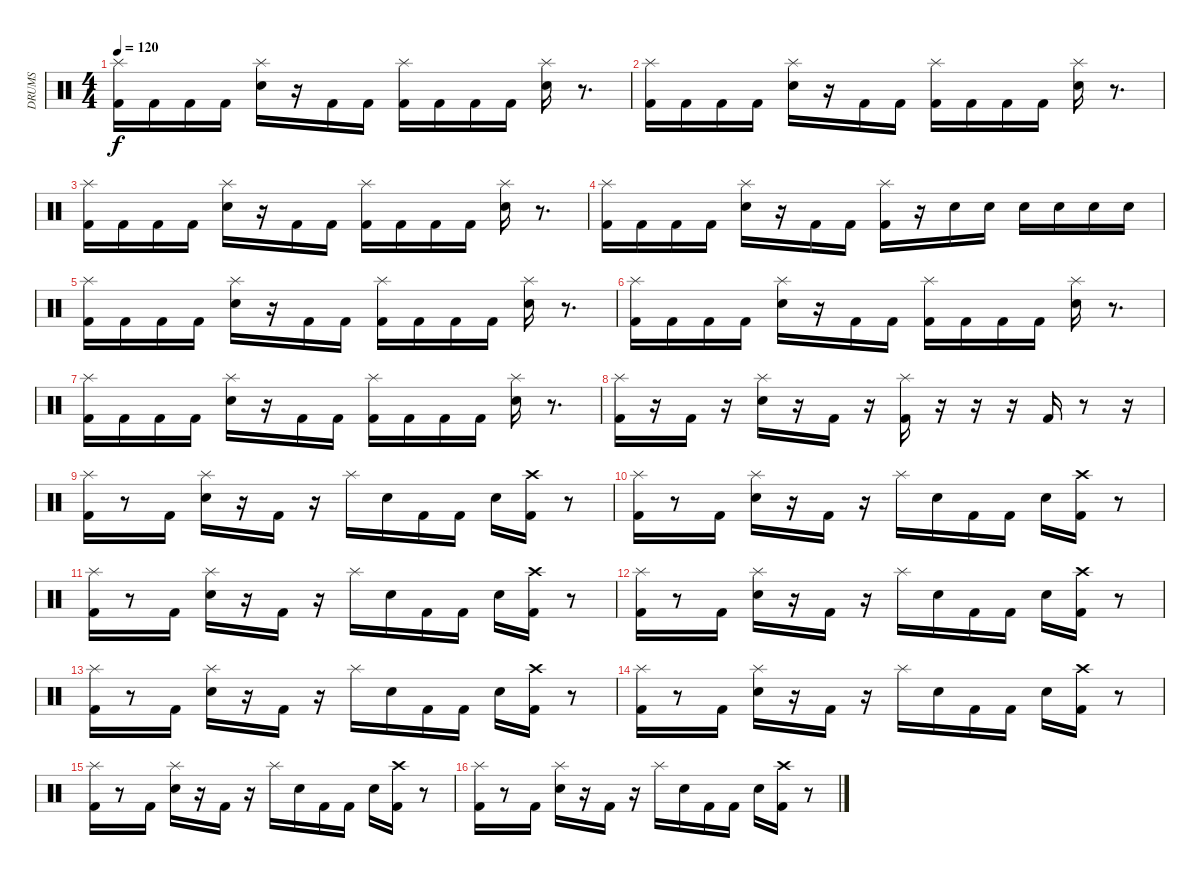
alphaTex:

\track ("DRUMS" "DRUMS") {instrument percussion}
\staff {score}
\articulation defaults
\ts (4 4)
\tempo 120
\clef neutral
\ks c
("Splash (hit)" "Kick (hit) 2").16{dy f} "Kick (hit) 2".16 "Kick (hit) 2".16 "Kick (hit) 2".16 ("Splash (hit)" "Electric Snare (hit)").16 r.16 "Kick (hit) 2".16 "Kick (hit) 2".16 ("Splash (hit)" "Kick (hit) 2").16 "Kick (hit) 2".16 "Kick (hit) 2".16 "Kick (hit) 2".16 ("Splash (hit)" "Electric Snare (hit)").16 r.8{d} |
("Splash (hit)" "Kick (hit) 2").16 "Kick (hit) 2".16 "Kick (hit) 2".16 "Kick (hit) 2".16 ("Splash (hit)" "Electric Snare (hit)").16 r.16 "Kick (hit) 2".16 "Kick (hit) 2".16 ("Splash (hit)" "Kick (hit) 2").16 "Kick (hit) 2".16 "Kick (hit) 2".16 "Kick (hit) 2".16 ("Splash (hit)" "Electric Snare (hit)").16 r.8{d} |
("Splash (hit)" "Kick (hit) 2").16 "Kick (hit) 2".16 "Kick (hit) 2".16 "Kick (hit) 2".16 ("Splash (hit)" "Electric Snare (hit)").16 r.16 "Kick (hit) 2".16 "Kick (hit) 2".16 ("Splash (hit)" "Kick (hit) 2").16 "Kick (hit) 2".16 "Kick (hit) 2".16 "Kick (hit) 2".16 ("Splash (hit)" "Electric Snare (hit)").16 r.8{d} |
("Splash (hit)" "Kick (hit) 2").16 "Kick (hit) 2".16 "Kick (hit) 2".16 "Kick (hit) 2".16 ("Splash (hit)" "Electric Snare (hit)").16 r.16 "Kick (hit) 2".16 "Kick (hit) 2".16 ("Splash (hit)" "Kick (hit) 2").16 r.16 "Electric Snare (hit)".16 "Electric Snare (hit)".16 "Electric Snare (hit)".16 "Electric Snare (hit)".16 "Electric Snare (hit)".16 "Electric Snare (hit)".16 |
("Splash (hit)" "Kick (hit) 2").16 "Kick (hit) 2".16 "Kick (hit) 2".16 "Kick (hit) 2".16 ("Splash (hit)" "Electric Snare (hit)").16 r.16 "Kick (hit) 2".16 "Kick (hit) 2".16 ("Splash (hit)" "Kick (hit) 2").16 "Kick (hit) 2".16 "Kick (hit) 2".16 "Kick (hit) 2".16 ("Splash (hit)" "Electric Snare (hit)").16 r.8{d} |
("Splash (hit)" "Kick (hit) 2").16 "Kick (hit) 2".16 "Kick (hit) 2".16 "Kick (hit) 2".16 ("Splash (hit)" "Electric Snare (hit)").16 r.16 "Kick (hit) 2".16 "Kick (hit) 2".16 ("Splash (hit)" "Kick (hit) 2").16 "Kick (hit) 2".16 "Kick (hit) 2".16 "Kick (hit) 2".16 ("Splash (hit)" "Electric Snare (hit)").16 r.8{d} |
("Splash (hit)" "Kick (hit) 2").16 "Kick (hit) 2".16 "Kick (hit) 2".16 "Kick (hit) 2".16 ("Splash (hit)" "Electric Snare (hit)").16 r.16 "Kick (hit) 2".16 "Kick (hit) 2".16 ("Splash (hit)" "Kick (hit) 2").16 "Kick (hit) 2".16 "Kick (hit) 2".16 "Kick (hit) 2".16 ("Splash (hit)" "Electric Snare (hit)").16 r.8{d} |
("Splash (hit)" "Kick (hit) 2").16 r.16 "Kick (hit) 2".16 r.16 ("Splash (hit)" "Electric Snare (hit)").16 r.16 "Kick (hit) 2".16 r.16 ("Splash (hit)" "Kick (hit) 2").16 r.16 r.16 r.16 "Kick (hit) 2".16 r.8 r.16 |
("Splash (hit)" "Kick (hit) 2").16 r.8 "Kick (hit) 2".16 ("Splash (hit)" "Electric Snare (hit)").16 r.16 "Kick (hit) 2".16 r.16 "Splash (hit)".16 "Electric Snare (hit)".16 "Kick (hit) 2".16 "Kick (hit) 2".16 "Electric Snare (hit)".16 ("Crash high (hit)" "Kick (hit) 2").16 r.8 |
("Splash (hit)" "Kick (hit) 2").16 r.8 "Kick (hit) 2".16 ("Splash (hit)" "Electric Snare (hit)").16 r.16 "Kick (hit) 2".16 r.16 "Splash (hit)".16 "Electric Snare (hit)".16 "Kick (hit) 2".16 "Kick (hit) 2".16 "Electric Snare (hit)".16 ("Crash high (hit)" "Kick (hit) 2").16 r.8 |
("Splash (hit)" "Kick (hit) 2").16 r.8 "Kick (hit) 2".16 ("Splash (hit)" "Electric Snare (hit)").16 r.16 "Kick (hit) 2".16 r.16 "Splash (hit)".16 "Electric Snare (hit)".16 "Kick (hit) 2".16 "Kick (hit) 2".16 "Electric Snare (hit)".16 ("Crash high (hit)" "Kick (hit) 2").16 r.8 |
("Splash (hit)" "Kick (hit) 2").16 r.8 "Kick (hit) 2".16 ("Splash (hit)" "Electric Snare (hit)").16 r.16 "Kick (hit) 2".16 r.16 "Splash (hit)".16 "Electric Snare (hit)".16 "Kick (hit) 2".16 "Kick (hit) 2".16 "Electric Snare (hit)".16 ("Crash high (hit)" "Kick (hit) 2").16 r.8 |
("Splash (hit)" "Kick (hit) 2").16 r.8 "Kick (hit) 2".16 ("Splash (hit)" "Electric Snare (hit)").16 r.16 "Kick (hit) 2".16 r.16 "Splash (hit)".16 "Electric Snare (hit)".16 "Kick (hit) 2".16 "Kick (hit) 2".16 "Electric Snare (hit)".16 ("Crash high (hit)" "Kick (hit) 2").16 r.8 |
("Splash (hit)" "Kick (hit) 2").16 r.8 "Kick (hit) 2".16 ("Splash (hit)" "Electric Snare (hit)").16 r.16 "Kick (hit) 2".16 r.16 "Splash (hit)".16 "Electric Snare (hit)".16 "Kick (hit) 2".16 "Kick (hit) 2".16 "Electric Snare (hit)".16 ("Crash high (hit)" "Kick (hit) 2").16 r.8 |
("Splash (hit)" "Kick (hit) 2").16 r.8 "Kick (hit) 2".16 ("Splash (hit)" "Electric Snare (hit)").16 r.16 "Kick (hit) 2".16 r.16 "Splash (hit)".16 "Electric Snare (hit)".16 "Kick (hit) 2".16 "Kick (hit) 2".16 "Electric Snare (hit)".16 ("Crash high (hit)" "Kick (hit) 2").16 r.8 |
("Splash (hit)" "Kick (hit) 2").16 r.8 "Kick (hit) 2".16 ("Splash (hit)" "Electric Snare (hit)").16 r.16 "Kick (hit) 2".16 r.16 "Splash (hit)".16 "Electric Snare (hit)".16 "Kick (hit) 2".16 "Kick (hit) 2".16 "Electric Snare (hit)".16 ("Crash high (hit)" "Kick (hit) 2").16 r.8
